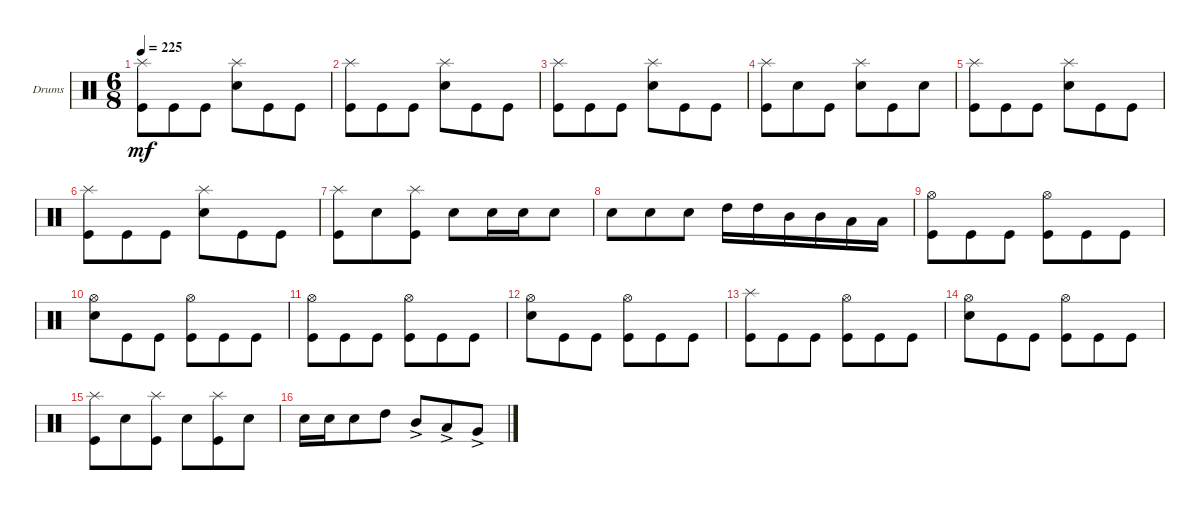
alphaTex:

\bracketExtendMode groupsimilarinstruments
\firstSystemTrackNameOrientation horizontal
\otherSystemsTrackNameOrientation horizontal
\track ("Drumkit" "Drums") {instrument percussion}
\staff {score}
\articulation defaults
\ts (6 8)
\tempo 225
\clef neutral
\ks c
("Kick (hit)" "Splash (hit)").8{dy mf} "Kick (hit)".8 "Kick (hit)".8 ("Snare (hit) 2" "Splash (hit)").8 "Kick (hit)".8 "Kick (hit)".8 |
("Kick (hit)" "Splash (hit)").8 "Kick (hit)".8 "Kick (hit)".8 ("Snare (hit) 2" "Splash (hit)").8 "Kick (hit)".8 "Kick (hit)".8 |
("Kick (hit)" "Splash (hit)").8 "Kick (hit)".8 "Kick (hit)".8 ("Snare (hit) 2" "Splash (hit)").8 "Kick (hit)".8 "Kick (hit)".8 |
("Kick (hit)" "Splash (hit)").8 "Snare (hit) 2".8 "Kick (hit)".8 ("Snare (hit) 2" "Splash (hit)").8 "Kick (hit)".8 "Snare (hit) 2".8 |
("Kick (hit)" "Splash (hit)").8 "Kick (hit)".8 "Kick (hit)".8 ("Snare (hit) 2" "Splash (hit)").8 "Kick (hit)".8 "Kick (hit)".8 |
("Kick (hit)" "Splash (hit)").8 "Kick (hit)".8 "Kick (hit)".8 ("Snare (hit) 2" "Splash (hit)").8 "Kick (hit)".8 "Kick (hit)".8 |
("Kick (hit)" "Splash (hit)").8 "Snare (hit) 2".8 ("Kick (hit)" "Splash (hit)").8 "Snare (hit) 2".8 "Snare (hit) 2".16 "Snare (hit) 2".16 "Snare (hit) 2".8 |
"Snare (hit) 2".8 "Snare (hit) 2".8 "Snare (hit) 2".8 "High Tom (hit)".16 "High Tom (hit)".16 "Mid Tom (hit)".16 "Mid Tom (hit)".16 "Low Tom (hit)".16 "Low Tom (hit)".16 |
("Kick (hit)" "Hi-Hat (open)").8 "Kick (hit)".8 "Kick (hit)".8 ("Kick (hit)" "Hi-Hat (open)").8 "Kick (hit)".8 "Kick (hit)".8 |
("Snare (hit) 2" "Hi-Hat (open)").8 "Kick (hit)".8 "Kick (hit)".8 ("Kick (hit)" "Hi-Hat (open)").8 "Kick (hit)".8 "Kick (hit)".8 |
("Kick (hit)" "Hi-Hat (open)").8 "Kick (hit)".8 "Kick (hit)".8 ("Kick (hit)" "Hi-Hat (open)").8 "Kick (hit)".8 "Kick (hit)".8 |
("Snare (hit) 2" "Hi-Hat (open)").8 "Kick (hit)".8 "Kick (hit)".8 ("Kick (hit)" "Hi-Hat (open)").8 "Kick (hit)".8 "Kick (hit)".8 |
("Kick (hit)" "Splash (hit)").8 "Kick (hit)".8 "Kick (hit)".8 ("Kick (hit)" "Hi-Hat (open)").8 "Kick (hit)".8 "Kick (hit)".8 |
("Snare (hit) 2" "Hi-Hat (open)").8 "Kick (hit)".8 "Kick (hit)".8 ("Kick (hit)" "Hi-Hat (open)").8 "Kick (hit)".8 "Kick (hit)".8 |
("Kick (hit)" "Splash (hit)").8 "Snare (hit) 2".8 ("Kick (hit)" "Splash (hit)").8 "Snare (hit) 2".8 ("Kick (hit)" "Splash (hit)").8 "Snare (hit) 2".8 |
"Snare (hit) 2".16 "Snare (hit) 2".16 "Snare (hit) 2".8 "High Tom (hit)".8 "Mid Tom (hit)"{ac}.8 "Low Tom (hit)"{ac}.8 "Very Low Tom (hit)"{ac}.8
